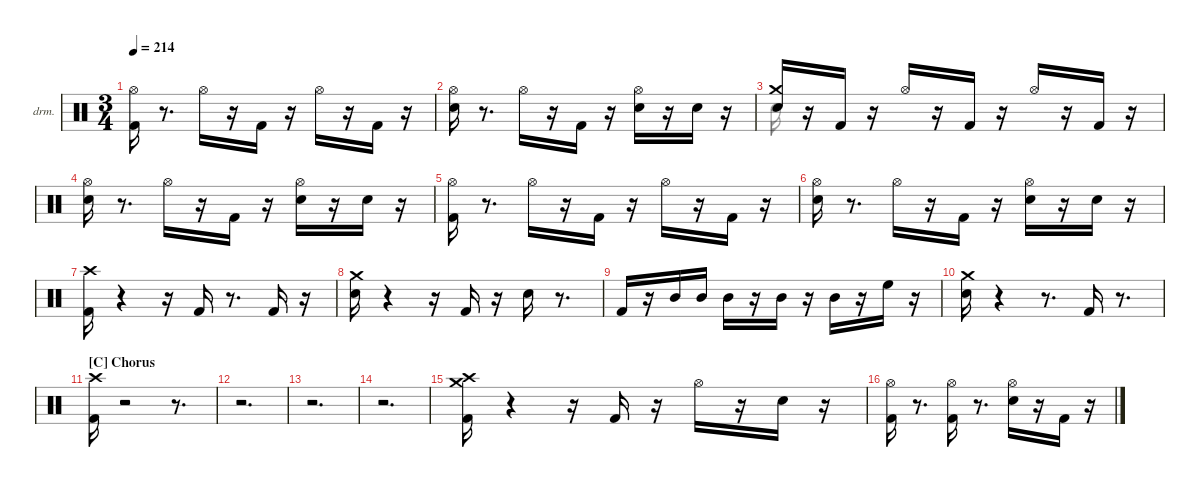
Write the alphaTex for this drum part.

\hideDynamics
\bracketExtendMode nobrackets
\firstSystemTrackNameOrientation horizontal
\otherSystemsTrackNameOrientation horizontal
\track ("EZdrummer 3" "drm.") {instrument percussion}
\staff {score}
\articulation defaults
\voice
\ts (3 4)
\tempo 214
\clef neutral
\ks aminor
("Kick (hit) 2" "Hi-Hat (open)"{acc #}).16{dy ff} r.8{d} "Hi-Hat (open)"{acc #}.16{dy mf} r.16 "Kick (hit) 2".16{dy p} r.16 "Hi-Hat (open)"{acc #}.16{dy mp} r.16 "Kick (hit) 2".16{dy mf} r.16 |
("Snare (hit) 2" "Hi-Hat (open)"{acc #}).16 r.8{d} "Hi-Hat (open)"{acc #}.16{dy mp} r.16 "Kick (hit) 2".16{dy f} r.16 ("Snare (hit) 2" "Hi-Hat (open)"{acc #}).16{dy mp} r.16 "Snare (hit) 2".16{dy pp} r.16 |
("Snare (hit) 2" "Crash medium (hit)").16{dy f} r.16 "Kick (hit) 2".16 r.16 "Hi-Hat (open)"{acc #}.16{dy mf} r.16 "Kick (hit) 2".16{dy p} r.16 "Hi-Hat (open)"{acc #}.16{dy mp} r.16 "Kick (hit) 2".16{dy mf} r.16 |
("Snare (hit) 2" "Hi-Hat (open)"{acc #}).16{dy ff} r.8{d} "Hi-Hat (open)"{acc #}.16{dy mf} r.16 "Kick (hit) 2".16{dy f} r.16 ("Snare (hit) 2" "Hi-Hat (open)"{acc #}).16{dy mp} r.16 "Snare (hit) 2".16{dy pp} r.16 |
("Kick (hit) 2" "Hi-Hat (open)"{acc #}).16{dy ff} r.8{d} "Hi-Hat (open)"{acc #}.16{dy mf} r.16 "Kick (hit) 2".16{dy p} r.16 "Hi-Hat (open)"{acc #}.16{dy mp} r.16 "Kick (hit) 2".16{dy mf} r.16 |
("Snare (hit) 2" "Hi-Hat (open)"{acc #}).16 r.8{d} "Hi-Hat (open)"{acc #}.16{dy mp} r.16 "Kick (hit) 2".16{dy f} r.16 ("Snare (hit) 2" "Hi-Hat (open)"{acc #}).16{dy mp} r.16 "Snare (hit) 2".16{dy pp} r.16 |
("Kick (hit) 2" "Crash high (hit)"{acc #}).16{dy ff} r.4 r.16 "Kick (hit) 2".16{dy mf} r.8{d} "Kick (hit) 2".16{dy f} r.16 |
("Snare (hit) 2" "Crash medium (hit)").16 r.4 r.16 "Kick (hit) 2".16{dy mf} r.16 "Snare (hit) 2".16{dy fff} r.8{d} |
"Kick (hit) 2".16 r.16 "Mid Tom (hit)".16{dy f} "Mid Tom (hit)".16{dy mf} "Mid Tom (hit)".16{dy fff} r.16 "Mid Tom (hit)".16{dy ff} r.16 "Mid Tom (hit)".16{dy mf} r.16 "High Floor Tom (hit)".16{dy fff} r.16 |
("Snare (hit) 2" "Crash medium (hit)").16{dy f} r.4 r.8{d} "Kick (hit) 2".16{dy mf} r.8{d} |
\section ("C" "Chorus")
("Kick (hit) 2" "Crash high (hit)"{acc #}).16{dy fff} r.2 r.8{d} |
r.2{d} |
r.2{d} |
r.2{d} |
("Kick (hit) 2" "Crash high (hit)"{acc #} "Crash medium (hit)").16 r.4 r.16 "Kick (hit) 2".16{dy ff} r.16 "Hi-Hat (open)"{acc #}.16{dy f} r.16 "Snare (hit) 2".16{dy ff} r.16 |
("Kick (hit) 2" "Hi-Hat (open)"{acc #}).16{dy fff} r.8{d} ("Kick (hit) 2" "Hi-Hat (open)"{acc #}).16{dy f} r.8{d} ("Snare (hit) 2" "Hi-Hat (open)"{acc #}).16 r.16 "Kick (hit) 2".16{dy mp} r.16
\voice
\clef neutral
\ottava regular
\simile none
\ks aminor
|
|
"Snare (hit) 2".16 |
|
|
|
|
|
|
|
|
|
|
|
|
